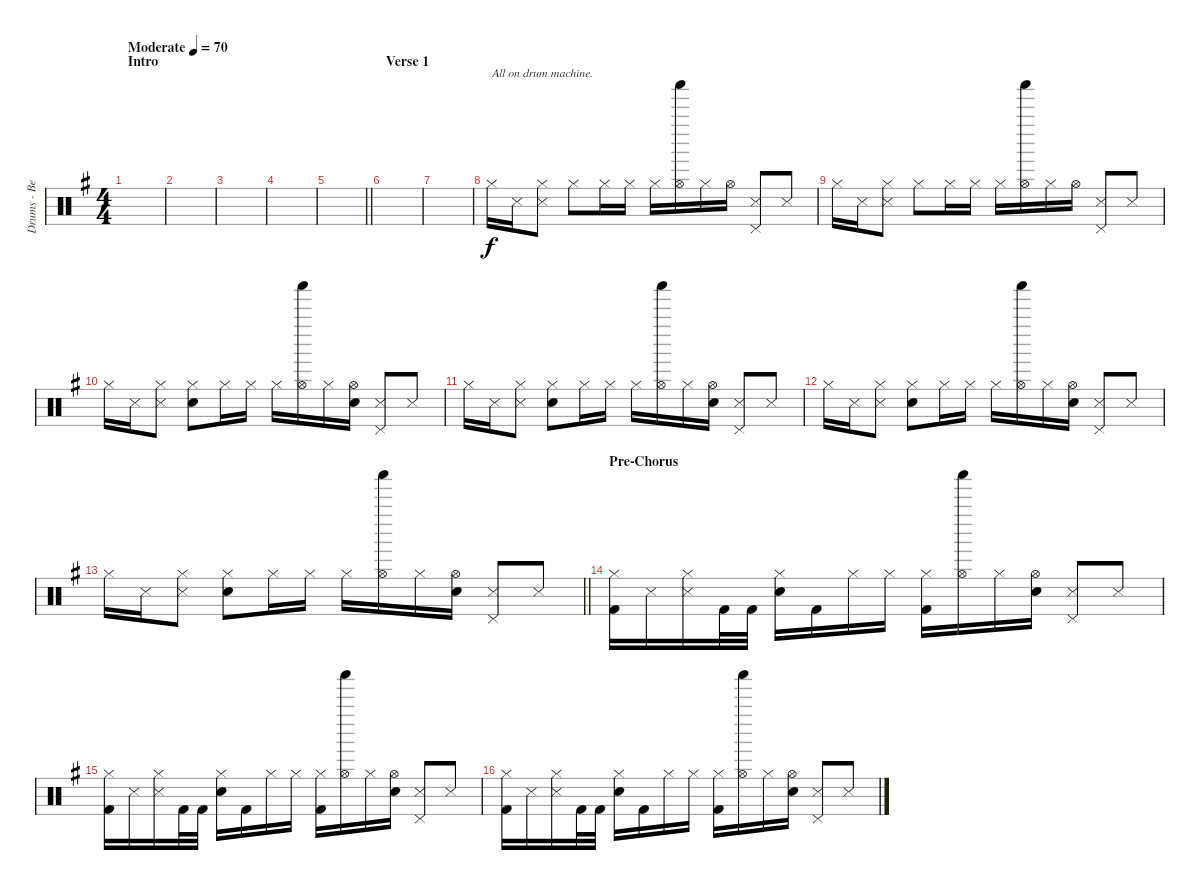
\track ("Drums - Ben Johnston" "Drums - Be") {instrument percussion}
\staff {score}
\articulation defaults
\ts (4 4)
\section ("" "Intro")
\tempo (70 "Moderate")
\clef neutral
\ks g
|
|
|
|
\barLineRight lightlight
|
\section ("" "Verse 1")
|
|
"Hi-Hat (closed)".16{txt "All on drum machine." balance 0} "Snare (side stick) 3".16{balance 8} ("Hi-Hat (closed)" "Snare (side stick) 3").8 "Hi-Hat (closed)".8{balance 0} "Hi-Hat (closed)".16 "Hi-Hat (closed)".16 "Hi-Hat (closed)".16 ("Hi-Hat (open)" "Shaker (hit)").16{balance 16} "Hi-Hat (closed)".16{balance 0} "Hi-Hat (open)".16 ("Snare (side stick) 3" "Pedal Hi-Hat (hit)").8{balance 8} "Snare (side stick) 3".8 |
"Hi-Hat (closed)".16{balance 0} "Snare (side stick) 3".16{balance 8} ("Hi-Hat (closed)" "Snare (side stick) 3").8 "Hi-Hat (closed)".8{balance 0} "Hi-Hat (closed)".16 "Hi-Hat (closed)".16 "Hi-Hat (closed)".16 ("Hi-Hat (open)" "Shaker (hit)").16{balance 16} "Hi-Hat (closed)".16{balance 0} "Hi-Hat (open)".16 ("Snare (side stick) 3" "Pedal Hi-Hat (hit)").8{balance 8} "Snare (side stick) 3".8 |
"Hi-Hat (closed)".16{balance 0} "Snare (side stick) 3".16{balance 8} ("Hi-Hat (closed)" "Snare (side stick) 3").8 ("Hi-Hat (closed)" "Electric Snare (hit)").8 "Hi-Hat (closed)".16{balance 0} "Hi-Hat (closed)".16 "Hi-Hat (closed)".16 ("Hi-Hat (open)" "Shaker (hit)").16{balance 16} "Hi-Hat (closed)".16{balance 0} ("Hi-Hat (open)" "Electric Snare (hit)").16{balance 8} ("Snare (side stick) 3" "Pedal Hi-Hat (hit)").8 "Snare (side stick) 3".8 |
"Hi-Hat (closed)".16{balance 0} "Snare (side stick) 3".16{balance 8} ("Hi-Hat (closed)" "Snare (side stick) 3").8 ("Hi-Hat (closed)" "Electric Snare (hit)").8 "Hi-Hat (closed)".16{balance 0} "Hi-Hat (closed)".16 "Hi-Hat (closed)".16 ("Hi-Hat (open)" "Shaker (hit)").16{balance 16} "Hi-Hat (closed)".16{balance 0} ("Hi-Hat (open)" "Electric Snare (hit)").16{balance 8} ("Snare (side stick) 3" "Pedal Hi-Hat (hit)").8 "Snare (side stick) 3".8 |
"Hi-Hat (closed)".16{balance 0} "Snare (side stick) 3".16{balance 8} ("Hi-Hat (closed)" "Snare (side stick) 3").8 ("Hi-Hat (closed)" "Electric Snare (hit)").8 "Hi-Hat (closed)".16{balance 0} "Hi-Hat (closed)".16 "Hi-Hat (closed)".16 ("Hi-Hat (open)" "Shaker (hit)").16{balance 16} "Hi-Hat (closed)".16{balance 0} ("Hi-Hat (open)" "Electric Snare (hit)").16{balance 8} ("Snare (side stick) 3" "Pedal Hi-Hat (hit)").8 "Snare (side stick) 3".8 |
\barLineRight lightlight "Hi-Hat (closed)".16{balance 0} "Snare (side stick) 3".16{balance 8}
("Hi-Hat (closed)" "Snare (side stick) 3").8 ("Hi-Hat (closed)" "Electric Snare (hit)").8 "Hi-Hat (closed)".16{balance 0} "Hi-Hat (closed)".16 "Hi-Hat (closed)".16 ("Hi-Hat (open)" "Shaker (hit)").16{balance 16} "Hi-Hat (closed)".16{balance 0} ("Hi-Hat (open)" "Electric Snare (hit)").16{balance 8} ("Snare (side stick) 3" "Pedal Hi-Hat (hit)").8 "Snare (side stick) 3".8 |
\section ("" "Pre-Chorus")
("Hi-Hat (closed)" "Kick (hit) 2").16{balance 0} "Snare (side stick) 3".16{balance 8} ("Hi-Hat (closed)" "Snare (side stick) 3").16 "Kick (hit) 2".32 "Kick (hit) 2".32 ("Hi-Hat (closed)" "Electric Snare (hit)").16 "Kick (hit) 2".16 "Hi-Hat (closed)".16{balance 0} "Hi-Hat (closed)".16 ("Hi-Hat (closed)" "Kick (hit) 2").16 ("Hi-Hat (open)" "Shaker (hit)").16{balance 16} "Hi-Hat (closed)".16{balance 0} ("Hi-Hat (open)" "Electric Snare (hit)").16{balance 8} ("Snare (side stick) 3" "Pedal Hi-Hat (hit)").8 "Snare (side stick) 3".8 |
("Hi-Hat (closed)" "Kick (hit) 2").16{balance 0} "Snare (side stick) 3".16{balance 8} ("Hi-Hat (closed)" "Snare (side stick) 3").16 "Kick (hit) 2".32 "Kick (hit) 2".32 ("Hi-Hat (closed)" "Electric Snare (hit)").16 "Kick (hit) 2".16 "Hi-Hat (closed)".16{balance 0} "Hi-Hat (closed)".16 ("Hi-Hat (closed)" "Kick (hit) 2").16 ("Hi-Hat (open)" "Shaker (hit)").16{balance 16} "Hi-Hat (closed)".16{balance 0} ("Hi-Hat (open)" "Electric Snare (hit)").16{balance 8} ("Snare (side stick) 3" "Pedal Hi-Hat (hit)").8 "Snare (side stick) 3".8 |
("Hi-Hat (closed)" "Kick (hit) 2").16{balance 0} "Snare (side stick) 3".16{balance 8} ("Hi-Hat (closed)" "Snare (side stick) 3").16 "Kick (hit) 2".32 "Kick (hit) 2".32 ("Hi-Hat (closed)" "Electric Snare (hit)").16 "Kick (hit) 2".16 "Hi-Hat (closed)".16{balance 0} "Hi-Hat (closed)".16 ("Hi-Hat (closed)" "Kick (hit) 2").16 ("Hi-Hat (open)" "Shaker (hit)").16{balance 16} "Hi-Hat (closed)".16{balance 0} ("Hi-Hat (open)" "Electric Snare (hit)").16{balance 8} ("Snare (side stick) 3" "Pedal Hi-Hat (hit)").8 "Snare (side stick) 3".8
